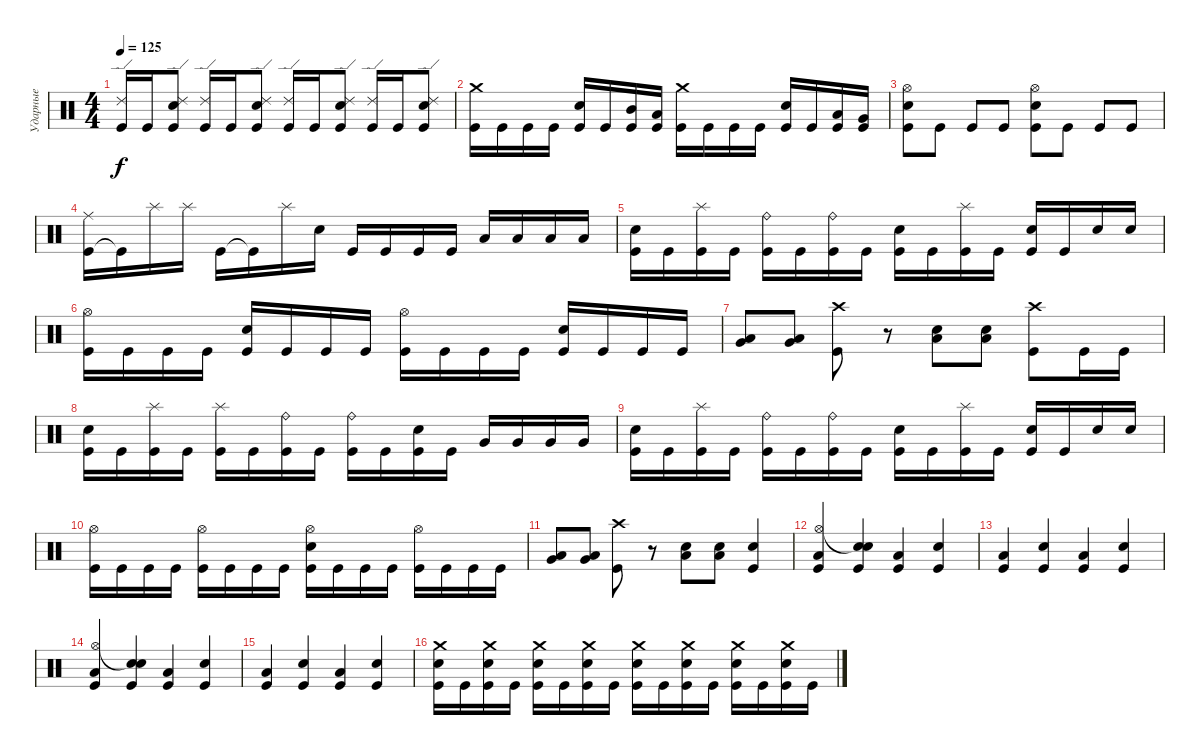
\track ("Ударные" "Ударные") {instrument percussion}
\staff {score}
\articulation defaults
\ts (4 4)
\tempo 125
\clef neutral
\ks c
("Ride (edge) 2" "Kick (hit)").16{dy f} "Kick (hit)".16 ("Ride (edge) 2" "Electric Snare (hit)" "Kick (hit)").8 ("Ride (edge) 2" "Kick (hit)").16 "Kick (hit)".16 ("Ride (edge) 2" "Electric Snare (hit)" "Kick (hit)").8 ("Ride (edge) 2" "Kick (hit)").16 "Kick (hit)".16 ("Ride (edge) 2" "Electric Snare (hit)" "Kick (hit)").8 ("Ride (edge) 2" "Kick (hit)").16 "Kick (hit)".16 ("Ride (edge) 2" "Electric Snare (hit)" "Kick (hit)").8 |
("Crash medium (hit)" "Kick (hit)").16 "Kick (hit)".16 "Kick (hit)".16 "Kick (hit)".16 ("Electric Snare (hit)" "Kick (hit)").16 "Kick (hit)".16 ("Mid Tom (hit)" "Kick (hit)").16 ("Low Tom (hit)" "Kick (hit)").16 ("Crash medium (hit)" "Kick (hit)").16 "Kick (hit)".16 "Kick (hit)".16 "Kick (hit)".16 ("Electric Snare (hit)" "Kick (hit)").16 "Kick (hit)".16 ("Low Tom (hit)" "Kick (hit)").16 ("Very Low Tom (hit)" "Kick (hit)").16 |
("Hi-Hat (open)" "Electric Snare (hit)" "Kick (hit)").8 "Kick (hit)".8 "Kick (hit)".8 "Kick (hit)".8 ("Hi-Hat (open)" "Kick (hit)" "Electric Snare (hit)").8 "Kick (hit)".8 "Kick (hit)".8 "Kick (hit)".8 |
("Kick (hit)" "Ride (middle)").16 "Kick (hit)"{t}.16 "Splash (hit)".16 "Splash (hit)".16 "Kick (hit)".16 "Kick (hit)"{t}.16 "Splash (hit)".16 "Electric Snare (hit)".16 "Kick (hit)".16 "Kick (hit)".16 "Kick (hit)".16 "Kick (hit)".16 "Low Tom (hit)".16 "Low Tom (hit)".16 "Low Tom (hit)".16 "Low Tom (hit)".16 |
("Electric Snare (hit)" "Kick (hit)").16 "Kick (hit)".16 ("Splash (hit)" "Kick (hit)").16 "Kick (hit)".16 ("Ride (bell)" "Kick (hit)").16 "Kick (hit)".16 ("Ride (bell)" "Kick (hit)").16 "Kick (hit)".16 ("Electric Snare (hit)" "Kick (hit)").16 "Kick (hit)".16 ("Splash (hit)" "Kick (hit)").16 "Kick (hit)".16 ("Electric Snare (hit)" "Kick (hit)").16 "Kick (hit)".16 "Electric Snare (hit)".16 "Electric Snare (hit)".16 |
("Hi-Hat (open)" "Kick (hit)").16 "Kick (hit)".16 "Kick (hit)".16 "Kick (hit)".16 ("Electric Snare (hit)" "Kick (hit)").16 "Kick (hit)".16 "Kick (hit)".16 "Kick (hit)".16 ("Hi-Hat (open)" "Kick (hit)").16 "Kick (hit)".16 "Kick (hit)".16 "Kick (hit)".16 ("Electric Snare (hit)" "Kick (hit)").16 "Kick (hit)".16 "Kick (hit)".16 "Kick (hit)".16 |
("Low Tom (hit)" "Very Low Tom (hit)").8 ("Low Tom (hit)" "Very Low Tom (hit)").8 ("Crash high (hit)" "Kick (hit)").8 r.8 ("Electric Snare (hit)" "Low Floor Tom (hit)").8 ("Electric Snare (hit)" "Low Floor Tom (hit)").8 ("Crash high (hit)" "Kick (hit)").8 "Kick (hit)".16 "Kick (hit)".16 |
("Electric Snare (hit)" "Kick (hit)").16 "Kick (hit)".16 ("Splash (hit)" "Kick (hit)").16 "Kick (hit)".16 ("Splash (hit)" "Kick (hit)").16 "Kick (hit)".16 ("Ride (bell)" "Kick (hit)").16 "Kick (hit)".16 ("Ride (bell)" "Kick (hit)").16 "Kick (hit)".16 ("Electric Snare (hit)" "Kick (hit)").16 "Kick (hit)".16 "Very Low Tom (hit)".16 "Very Low Tom (hit)".16 "Very Low Tom (hit)".16 "Very Low Tom (hit)".16 |
("Electric Snare (hit)" "Kick (hit)").16 "Kick (hit)".16 ("Splash (hit)" "Kick (hit)").16 "Kick (hit)".16 ("Ride (bell)" "Kick (hit)").16 "Kick (hit)".16 ("Ride (bell)" "Kick (hit)").16 "Kick (hit)".16 ("Electric Snare (hit)" "Kick (hit)").16 "Kick (hit)".16 ("Splash (hit)" "Kick (hit)").16 "Kick (hit)".16 ("Electric Snare (hit)" "Kick (hit)").16 "Kick (hit)".16 "Electric Snare (hit)".16 "Electric Snare (hit)".16 |
("Hi-Hat (open)" "Kick (hit)").16 "Kick (hit)".16 "Kick (hit)".16 "Kick (hit)".16 ("Hi-Hat (open)" "Kick (hit)").16 "Kick (hit)".16 "Kick (hit)".16 "Kick (hit)".16 ("Hi-Hat (open)" "Electric Snare (hit)" "Kick (hit)").16 "Kick (hit)".16 "Kick (hit)".16 "Kick (hit)".16 ("Hi-Hat (open)" "Kick (hit)").16 "Kick (hit)".16 "Kick (hit)".16 "Kick (hit)".16 |
("Low Tom (hit)" "Very Low Tom (hit)").8 ("Low Tom (hit)" "Very Low Tom (hit)").8 ("Crash high (hit)" "Kick (hit)").8 r.8 ("Electric Snare (hit)" "Low Floor Tom (hit)").8 ("Electric Snare (hit)" "Low Floor Tom (hit)").8 ("Electric Snare (hit)" "Kick (hit)").4 |
("Hi-Hat (open)" "Low Floor Tom (hit)" "Kick (hit)").4 ("Snare (hit)"{t} "Electric Snare (hit)" "Kick (hit)").4 ("Low Floor Tom (hit)" "Kick (hit)").4 ("Electric Snare (hit)" "Kick (hit)").4 |
("Low Floor Tom (hit)" "Kick (hit)").4 ("Electric Snare (hit)" "Kick (hit)").4 ("Low Floor Tom (hit)" "Kick (hit)").4 ("Electric Snare (hit)" "Kick (hit)").4 |
("Hi-Hat (open)" "Low Floor Tom (hit)" "Kick (hit)").4 ("Snare (hit)"{t} "Electric Snare (hit)" "Kick (hit)").4 ("Low Floor Tom (hit)" "Kick (hit)").4 ("Electric Snare (hit)" "Kick (hit)").4 |
("Low Floor Tom (hit)" "Kick (hit)").4 ("Electric Snare (hit)" "Kick (hit)").4 ("Low Floor Tom (hit)" "Kick (hit)").4 ("Electric Snare (hit)" "Kick (hit)").4 |
("Crash medium (hit)" "Kick (hit)" "Electric Snare (hit)").16 "Kick (hit)".16 ("Crash medium (hit)" "Kick (hit)" "Electric Snare (hit)").16 "Kick (hit)".16 ("Crash medium (hit)" "Kick (hit)" "Electric Snare (hit)").16 "Kick (hit)".16 ("Crash medium (hit)" "Kick (hit)" "Electric Snare (hit)").16 "Kick (hit)".16 ("Crash medium (hit)" "Kick (hit)" "Electric Snare (hit)").16 "Kick (hit)".16 ("Crash medium (hit)" "Kick (hit)" "Electric Snare (hit)").16 "Kick (hit)".16 ("Crash medium (hit)" "Kick (hit)" "Electric Snare (hit)").16 "Kick (hit)".16 ("Crash medium (hit)" "Kick (hit)" "Electric Snare (hit)").16 "Kick (hit)".16
